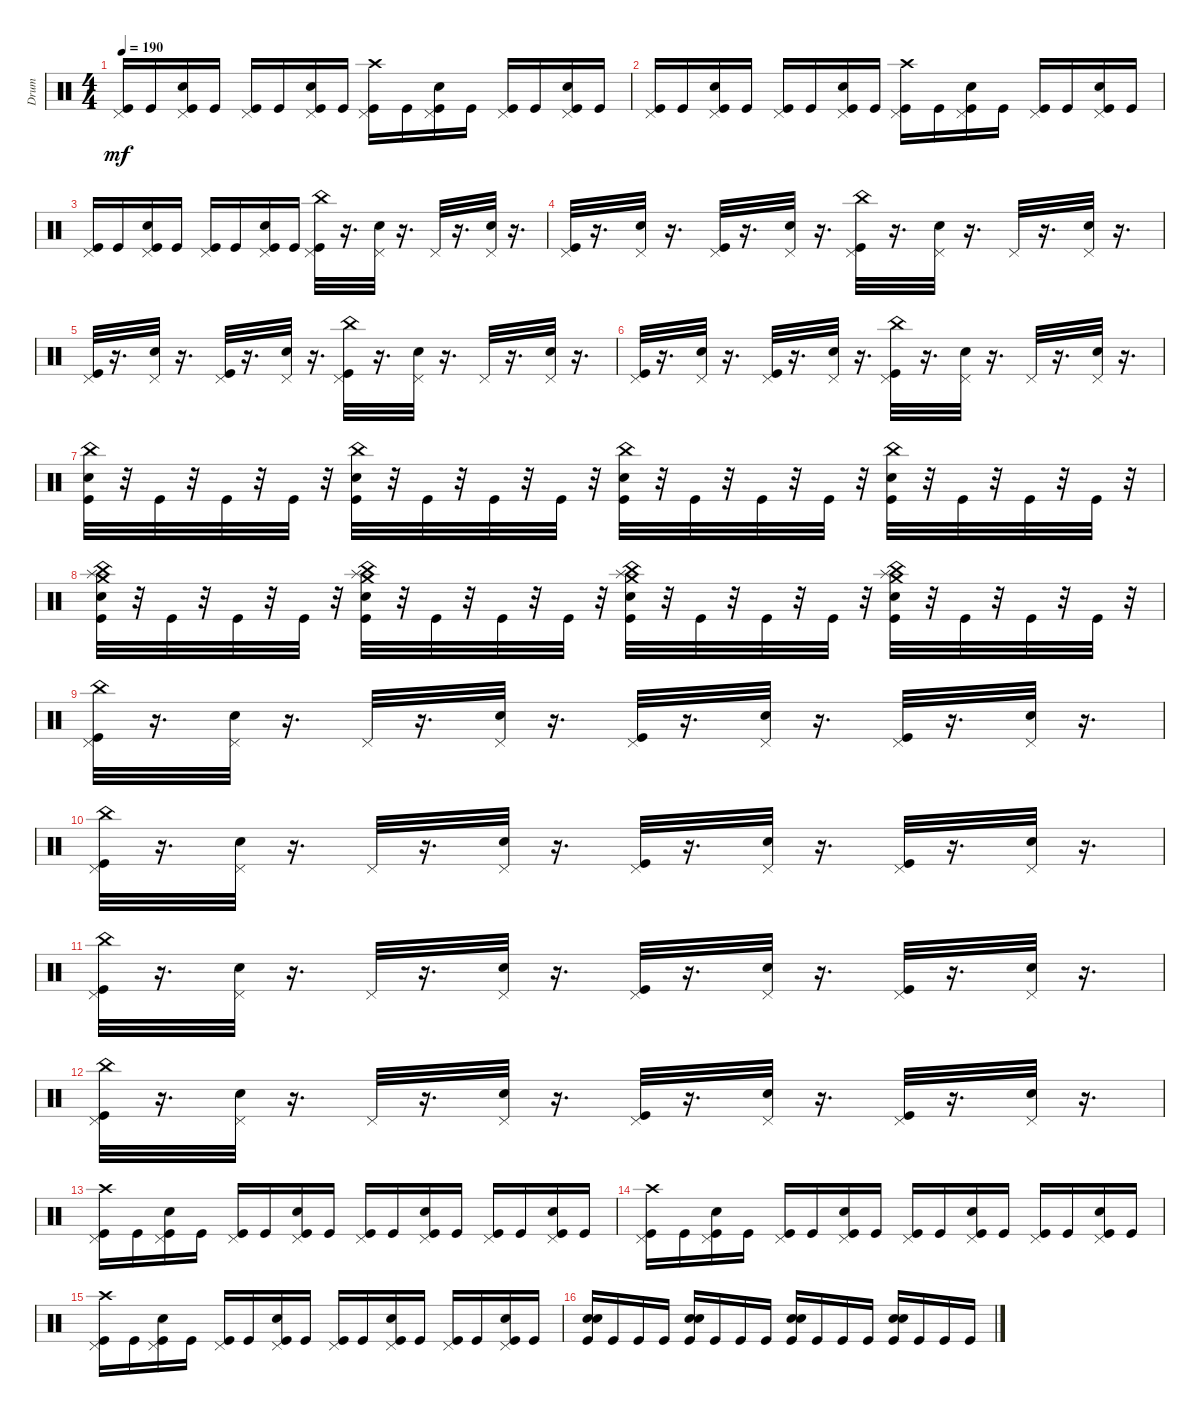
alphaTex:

\track ("Drum" "Drum") {instrument percussion}
\staff {score}
\articulation defaults
\ts (4 4)
\tempo 190
\clef neutral
\ks c
("Pedal Hi-Hat (hit)" "Kick (hit)").16{dy mf} "Kick (hit)".16 ("Pedal Hi-Hat (hit)" "Snare (hit) 2" "Kick (hit)").16 "Kick (hit)".16 ("Pedal Hi-Hat (hit)" "Kick (hit)").16 "Kick (hit)".16 ("Pedal Hi-Hat (hit)" "Snare (hit) 2" "Kick (hit)").16 "Kick (hit)".16 ("Crash high (hit)" "Pedal Hi-Hat (hit)" "Kick (hit)").16 "Kick (hit)".16 ("Pedal Hi-Hat (hit)" "Snare (hit) 2" "Kick (hit)").16 "Kick (hit)".16 ("Pedal Hi-Hat (hit)" "Kick (hit)").16 "Kick (hit)".16 ("Pedal Hi-Hat (hit)" "Snare (hit) 2" "Kick (hit)").16 "Kick (hit)".16 |
("Pedal Hi-Hat (hit)" "Kick (hit)").16 "Kick (hit)".16 ("Pedal Hi-Hat (hit)" "Snare (hit) 2" "Kick (hit)").16 "Kick (hit)".16 ("Pedal Hi-Hat (hit)" "Kick (hit)").16 "Kick (hit)".16 ("Pedal Hi-Hat (hit)" "Snare (hit) 2" "Kick (hit)").16 "Kick (hit)".16 ("Crash high (hit)" "Pedal Hi-Hat (hit)" "Kick (hit)").16 "Kick (hit)".16 ("Pedal Hi-Hat (hit)" "Snare (hit) 2" "Kick (hit)").16 "Kick (hit)".16 ("Pedal Hi-Hat (hit)" "Kick (hit)").16 "Kick (hit)".16 ("Pedal Hi-Hat (hit)" "Snare (hit) 2" "Kick (hit)").16 "Kick (hit)".16 |
("Pedal Hi-Hat (hit)" "Kick (hit)").16 "Kick (hit)".16 ("Pedal Hi-Hat (hit)" "Snare (hit) 2" "Kick (hit)").16 "Kick (hit)".16 ("Pedal Hi-Hat (hit)" "Kick (hit)").16 "Kick (hit)".16 ("Pedal Hi-Hat (hit)" "Snare (hit) 2" "Kick (hit)").16 "Kick (hit)".16 ("Pedal Hi-Hat (hit)" "Kick (hit)" "China (hit)").32 r.16{d} ("Pedal Hi-Hat (hit)" "Snare (hit) 2").32 r.16{d} "Pedal Hi-Hat (hit)".32 r.16{d} ("Pedal Hi-Hat (hit)" "Snare (hit) 2").32 r.16{d} |
("Pedal Hi-Hat (hit)" "Kick (hit)").32 r.16{d} ("Pedal Hi-Hat (hit)" "Snare (hit) 2").32 r.16{d} ("Kick (hit)" "Pedal Hi-Hat (hit)").32 r.16{d} ("Pedal Hi-Hat (hit)" "Snare (hit) 2").32 r.16{d} ("China (hit)" "Pedal Hi-Hat (hit)" "Kick (hit)").32 r.16{d} ("Pedal Hi-Hat (hit)" "Snare (hit) 2").32 r.16{d} "Pedal Hi-Hat (hit)".32 r.16{d} ("Pedal Hi-Hat (hit)" "Snare (hit) 2").32 r.16{d} |
("Pedal Hi-Hat (hit)" "Kick (hit)").32 r.16{d} ("Pedal Hi-Hat (hit)" "Snare (hit) 2").32 r.16{d} ("Kick (hit)" "Pedal Hi-Hat (hit)").32 r.16{d} ("Pedal Hi-Hat (hit)" "Snare (hit) 2").32 r.16{d} ("China (hit)" "Pedal Hi-Hat (hit)" "Kick (hit)").32 r.16{d} ("Pedal Hi-Hat (hit)" "Snare (hit) 2").32 r.16{d} "Pedal Hi-Hat (hit)".32 r.16{d} ("Pedal Hi-Hat (hit)" "Snare (hit) 2").32 r.16{d} |
("Pedal Hi-Hat (hit)" "Kick (hit)").32 r.16{d} ("Pedal Hi-Hat (hit)" "Snare (hit) 2").32 r.16{d} ("Kick (hit)" "Pedal Hi-Hat (hit)").32 r.16{d} ("Pedal Hi-Hat (hit)" "Snare (hit) 2").32 r.16{d} ("China (hit)" "Pedal Hi-Hat (hit)" "Kick (hit)").32 r.16{d} ("Pedal Hi-Hat (hit)" "Snare (hit) 2").32 r.16{d} "Pedal Hi-Hat (hit)".32 r.16{d} ("Pedal Hi-Hat (hit)" "Snare (hit) 2").32 r.16{d} |
("China (hit)" "Snare (hit) 2" "Kick (hit)").32 r.32 "Kick (hit)".32 r.32 "Kick (hit)".32 r.32 "Kick (hit)".32 r.32 ("Snare (hit) 2" "China (hit)" "Kick (hit)").32 r.32 "Kick (hit)".32 r.32 "Kick (hit)".32 r.32 "Kick (hit)".32 r.32 ("Snare (hit) 2" "China (hit)" "Kick (hit)").32 r.32 "Kick (hit)".32 r.32 "Kick (hit)".32 r.32 "Kick (hit)".32 r.32 ("Snare (hit) 2" "China (hit)" "Kick (hit)").32 r.32 "Kick (hit)".32 r.32 "Kick (hit)".32 r.32 "Kick (hit)".32 r.32 |
("Splash (hit)" "Crash medium (hit)" "Snare (hit) 2" "China (hit)" "Kick (hit)").32 r.32 "Kick (hit)".32 r.32 "Kick (hit)".32 r.32 "Kick (hit)".32 r.32 ("Splash (hit)" "Crash medium (hit)" "Snare (hit) 2" "China (hit)" "Kick (hit)").32 r.32 "Kick (hit)".32 r.32 "Kick (hit)".32 r.32 "Kick (hit)".32 r.32 ("Splash (hit)" "Crash medium (hit)" "Snare (hit) 2" "China (hit)" "Kick (hit)").32 r.32 "Kick (hit)".32 r.32 "Kick (hit)".32 r.32 "Kick (hit)".32 r.32 ("Splash (hit)" "Crash medium (hit)" "Snare (hit) 2" "China (hit)" "Kick (hit)").32 r.32 "Kick (hit)".32 r.32 "Kick (hit)".32 r.32 "Kick (hit)".32 r.32 |
("Pedal Hi-Hat (hit)" "Kick (hit)" "China (hit)").32 r.16{d} ("Pedal Hi-Hat (hit)" "Snare (hit) 2").32 r.16{d} "Pedal Hi-Hat (hit)".32 r.16{d} ("Pedal Hi-Hat (hit)" "Snare (hit) 2").32 r.16{d} ("Pedal Hi-Hat (hit)" "Kick (hit)").32 r.16{d} ("Pedal Hi-Hat (hit)" "Snare (hit) 2").32 r.16{d} ("Kick (hit)" "Pedal Hi-Hat (hit)").32 r.16{d} ("Pedal Hi-Hat (hit)" "Snare (hit) 2").32 r.16{d} |
("Pedal Hi-Hat (hit)" "Kick (hit)" "China (hit)").32 r.16{d} ("Pedal Hi-Hat (hit)" "Snare (hit) 2").32 r.16{d} "Pedal Hi-Hat (hit)".32 r.16{d} ("Pedal Hi-Hat (hit)" "Snare (hit) 2").32 r.16{d} ("Pedal Hi-Hat (hit)" "Kick (hit)").32 r.16{d} ("Pedal Hi-Hat (hit)" "Snare (hit) 2").32 r.16{d} ("Kick (hit)" "Pedal Hi-Hat (hit)").32 r.16{d} ("Pedal Hi-Hat (hit)" "Snare (hit) 2").32 r.16{d} |
("Pedal Hi-Hat (hit)" "Kick (hit)" "China (hit)").32 r.16{d} ("Pedal Hi-Hat (hit)" "Snare (hit) 2").32 r.16{d} "Pedal Hi-Hat (hit)".32 r.16{d} ("Pedal Hi-Hat (hit)" "Snare (hit) 2").32 r.16{d} ("Pedal Hi-Hat (hit)" "Kick (hit)").32 r.16{d} ("Pedal Hi-Hat (hit)" "Snare (hit) 2").32 r.16{d} ("Kick (hit)" "Pedal Hi-Hat (hit)").32 r.16{d} ("Pedal Hi-Hat (hit)" "Snare (hit) 2").32 r.16{d} |
("Pedal Hi-Hat (hit)" "Kick (hit)" "China (hit)").32 r.16{d} ("Pedal Hi-Hat (hit)" "Snare (hit) 2").32 r.16{d} "Pedal Hi-Hat (hit)".32 r.16{d} ("Pedal Hi-Hat (hit)" "Snare (hit) 2").32 r.16{d} ("Pedal Hi-Hat (hit)" "Kick (hit)").32 r.16{d} ("Pedal Hi-Hat (hit)" "Snare (hit) 2").32 r.16{d} ("Kick (hit)" "Pedal Hi-Hat (hit)").32 r.16{d} ("Pedal Hi-Hat (hit)" "Snare (hit) 2").32 r.16{d} |
("Crash high (hit)" "Pedal Hi-Hat (hit)" "Kick (hit)").16 "Kick (hit)".16 ("Pedal Hi-Hat (hit)" "Snare (hit) 2" "Kick (hit)").16 "Kick (hit)".16 ("Pedal Hi-Hat (hit)" "Kick (hit)").16 "Kick (hit)".16 ("Pedal Hi-Hat (hit)" "Snare (hit) 2" "Kick (hit)").16 "Kick (hit)".16 ("Pedal Hi-Hat (hit)" "Kick (hit)").16 "Kick (hit)".16 ("Pedal Hi-Hat (hit)" "Snare (hit) 2" "Kick (hit)").16 "Kick (hit)".16 ("Pedal Hi-Hat (hit)" "Kick (hit)").16 "Kick (hit)".16 ("Pedal Hi-Hat (hit)" "Snare (hit) 2" "Kick (hit)").16 "Kick (hit)".16 |
("Crash high (hit)" "Pedal Hi-Hat (hit)" "Kick (hit)").16 "Kick (hit)".16 ("Pedal Hi-Hat (hit)" "Snare (hit) 2" "Kick (hit)").16 "Kick (hit)".16 ("Pedal Hi-Hat (hit)" "Kick (hit)").16 "Kick (hit)".16 ("Pedal Hi-Hat (hit)" "Snare (hit) 2" "Kick (hit)").16 "Kick (hit)".16 ("Pedal Hi-Hat (hit)" "Kick (hit)").16 "Kick (hit)".16 ("Pedal Hi-Hat (hit)" "Snare (hit) 2" "Kick (hit)").16 "Kick (hit)".16 ("Pedal Hi-Hat (hit)" "Kick (hit)").16 "Kick (hit)".16 ("Pedal Hi-Hat (hit)" "Snare (hit) 2" "Kick (hit)").16 "Kick (hit)".16 |
("Crash high (hit)" "Pedal Hi-Hat (hit)" "Kick (hit)").16 "Kick (hit)".16 ("Pedal Hi-Hat (hit)" "Snare (hit) 2" "Kick (hit)").16 "Kick (hit)".16 ("Pedal Hi-Hat (hit)" "Kick (hit)").16 "Kick (hit)".16 ("Pedal Hi-Hat (hit)" "Snare (hit) 2" "Kick (hit)").16 "Kick (hit)".16 ("Pedal Hi-Hat (hit)" "Kick (hit)").16 "Kick (hit)".16 ("Pedal Hi-Hat (hit)" "Snare (hit) 2" "Kick (hit)").16 "Kick (hit)".16 ("Pedal Hi-Hat (hit)" "Kick (hit)").16 "Kick (hit)".16 ("Pedal Hi-Hat (hit)" "Snare (hit) 2" "Kick (hit)").16 "Kick (hit)".16 |
("Snare (hit) 2" "Kick (hit)" "Snare (hit) 2").16 "Kick (hit)".16 "Kick (hit)".16 "Kick (hit)".16 ("Snare (hit) 2" "Kick (hit)" "Snare (hit) 2").16 "Kick (hit)".16 "Kick (hit)".16 "Kick (hit)".16 ("Snare (hit) 2" "Kick (hit)" "Snare (hit) 2").16 "Kick (hit)".16 "Kick (hit)".16 "Kick (hit)".16 ("Snare (hit) 2" "Kick (hit)" "Snare (hit) 2").16 "Kick (hit)".16 "Kick (hit)".16 "Kick (hit)".16
